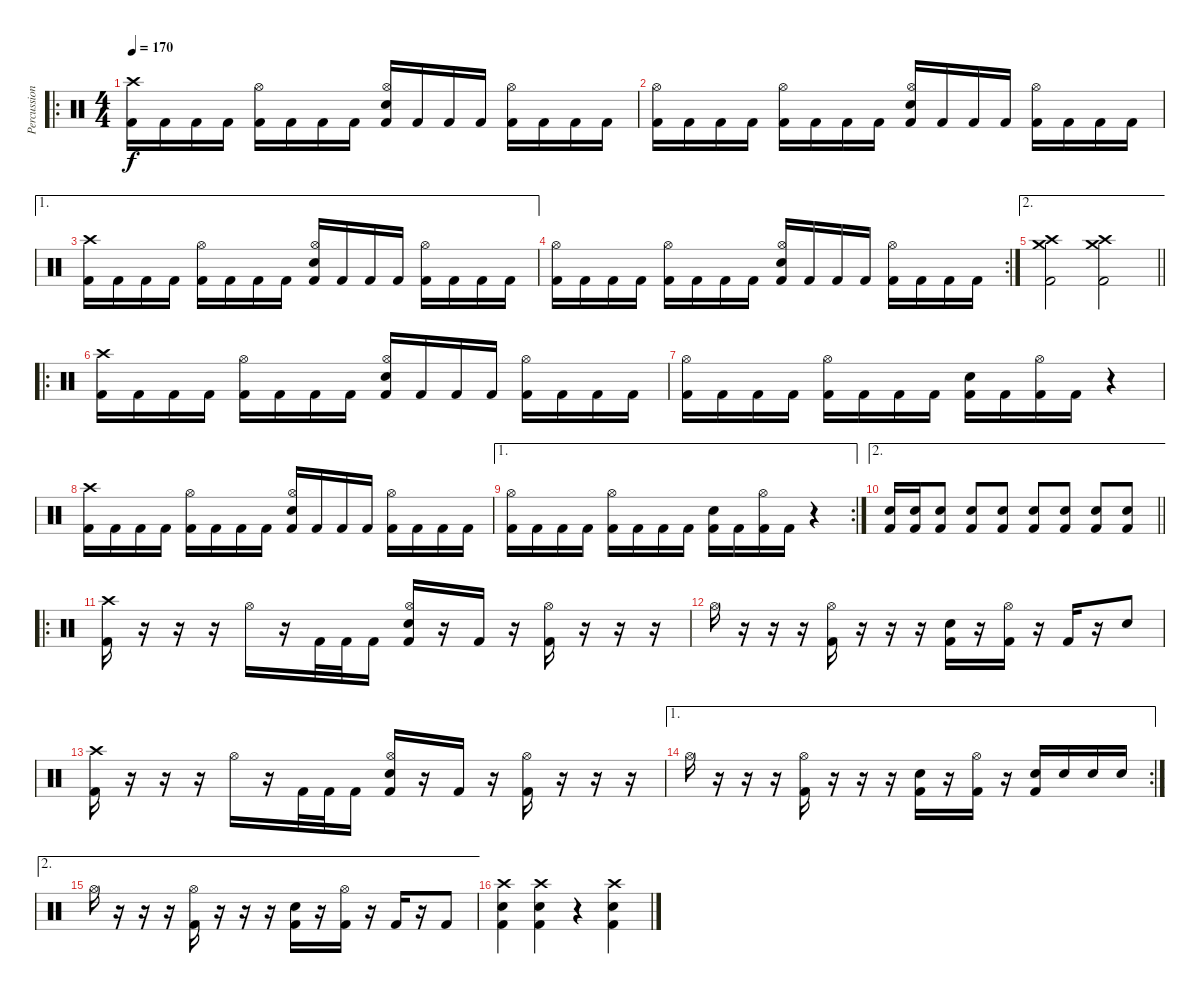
\track ("Percussion" "Percussion") {instrument percussion}
\staff {score}
\articulation defaults
\ro
\ts (4 4)
\section ("" "")
\tempo 170
\clef neutral
\ks c
("Crash high (hit)" "Kick (hit) 2").16{dy f} "Kick (hit) 2".16 "Kick (hit) 2".16 "Kick (hit) 2".16 ("Hi-Hat (open)" "Kick (hit) 2").16 "Kick (hit) 2".16 "Kick (hit) 2".16 "Kick (hit) 2".16 ("Hi-Hat (open)" "Electric Snare (hit)" "Kick (hit) 2").16 "Kick (hit) 2".16 "Kick (hit) 2".16 "Kick (hit) 2".16 ("Hi-Hat (open)" "Kick (hit) 2").16 "Kick (hit) 2".16 "Kick (hit) 2".16 "Kick (hit) 2".16 |
("Hi-Hat (open)" "Kick (hit) 2").16 "Kick (hit) 2".16 "Kick (hit) 2".16 "Kick (hit) 2".16 ("Hi-Hat (open)" "Kick (hit) 2").16 "Kick (hit) 2".16 "Kick (hit) 2".16 "Kick (hit) 2".16 ("Hi-Hat (open)" "Electric Snare (hit)" "Kick (hit) 2").16 "Kick (hit) 2".16 "Kick (hit) 2".16 "Kick (hit) 2".16 ("Hi-Hat (open)" "Kick (hit) 2").16 "Kick (hit) 2".16 "Kick (hit) 2".16 "Kick (hit) 2".16 |
\ae 1
("Crash high (hit)" "Kick (hit) 2").16 "Kick (hit) 2".16 "Kick (hit) 2".16 "Kick (hit) 2".16 ("Hi-Hat (open)" "Kick (hit) 2").16 "Kick (hit) 2".16 "Kick (hit) 2".16 "Kick (hit) 2".16 ("Hi-Hat (open)" "Electric Snare (hit)" "Kick (hit) 2").16 "Kick (hit) 2".16 "Kick (hit) 2".16 "Kick (hit) 2".16 ("Hi-Hat (open)" "Kick (hit) 2").16 "Kick (hit) 2".16 "Kick (hit) 2".16 "Kick (hit) 2".16 |
\rc 2
("Hi-Hat (open)" "Kick (hit) 2").16 "Kick (hit) 2".16 "Kick (hit) 2".16 "Kick (hit) 2".16 ("Hi-Hat (open)" "Kick (hit) 2").16 "Kick (hit) 2".16 "Kick (hit) 2".16 "Kick (hit) 2".16 ("Hi-Hat (open)" "Electric Snare (hit)" "Kick (hit) 2").16 "Kick (hit) 2".16 "Kick (hit) 2".16 "Kick (hit) 2".16 ("Hi-Hat (open)" "Kick (hit) 2").16 "Kick (hit) 2".16 "Kick (hit) 2".16 "Kick (hit) 2".16 |
\ae 2
\barLineRight lightlight
("Crash high (hit)" "Crash medium (hit)" "Kick (hit) 2").2 ("Crash high (hit)" "Crash medium (hit)" "Kick (hit) 2").2 |
\ro
\section ("" "")
("Crash high (hit)" "Kick (hit) 2").16 "Kick (hit) 2".16 "Kick (hit) 2".16 "Kick (hit) 2".16 ("Hi-Hat (open)" "Kick (hit) 2").16 "Kick (hit) 2".16 "Kick (hit) 2".16 "Kick (hit) 2".16 ("Hi-Hat (open)" "Electric Snare (hit)" "Kick (hit) 2").16 "Kick (hit) 2".16 "Kick (hit) 2".16 "Kick (hit) 2".16 ("Hi-Hat (open)" "Kick (hit) 2").16 "Kick (hit) 2".16 "Kick (hit) 2".16 "Kick (hit) 2".16 |
("Hi-Hat (open)" "Kick (hit) 2").16 "Kick (hit) 2".16 "Kick (hit) 2".16 "Kick (hit) 2".16 ("Hi-Hat (open)" "Kick (hit) 2").16 "Kick (hit) 2".16 "Kick (hit) 2".16 "Kick (hit) 2".16 ("Electric Snare (hit)" "Kick (hit) 2").16 "Kick (hit) 2".16 ("Hi-Hat (open)" "Kick (hit) 2").16 "Kick (hit) 2".16 r.4 |
("Crash high (hit)" "Kick (hit) 2").16 "Kick (hit) 2".16 "Kick (hit) 2".16 "Kick (hit) 2".16 ("Hi-Hat (open)" "Kick (hit) 2").16 "Kick (hit) 2".16 "Kick (hit) 2".16 "Kick (hit) 2".16 ("Hi-Hat (open)" "Electric Snare (hit)" "Kick (hit) 2").16 "Kick (hit) 2".16 "Kick (hit) 2".16 "Kick (hit) 2".16 ("Hi-Hat (open)" "Kick (hit) 2").16 "Kick (hit) 2".16 "Kick (hit) 2".16 "Kick (hit) 2".16 |
\ae 1
\rc 2
("Hi-Hat (open)" "Kick (hit) 2").16 "Kick (hit) 2".16 "Kick (hit) 2".16 "Kick (hit) 2".16 ("Hi-Hat (open)" "Kick (hit) 2").16 "Kick (hit) 2".16 "Kick (hit) 2".16 "Kick (hit) 2".16 ("Electric Snare (hit)" "Kick (hit) 2").16 "Kick (hit) 2".16 ("Hi-Hat (open)" "Kick (hit) 2").16 "Kick (hit) 2".16 r.4 |
\ae 2
\barLineRight lightlight
("Electric Snare (hit)" "Kick (hit) 2").16 ("Electric Snare (hit)" "Kick (hit) 2").16 ("Electric Snare (hit)" "Kick (hit) 2").8 ("Electric Snare (hit)" "Kick (hit) 2").8 ("Electric Snare (hit)" "Kick (hit) 2").8 ("Electric Snare (hit)" "Kick (hit) 2").8 ("Electric Snare (hit)" "Kick (hit) 2").8 ("Electric Snare (hit)" "Kick (hit) 2").8 ("Electric Snare (hit)" "Kick (hit) 2").8 |
\ro
\section ("" "")
("Crash high (hit)" "Kick (hit) 2").16 r.16 r.16 r.16 "Hi-Hat (open)".16 r.16 "Kick (hit) 2".32 "Kick (hit) 2".32 "Kick (hit) 2".16 ("Hi-Hat (open)" "Electric Snare (hit)" "Kick (hit) 2").16 r.16 "Kick (hit) 2".16 r.16 ("Hi-Hat (open)" "Kick (hit) 2").16 r.16 r.16 r.16 |
"Hi-Hat (open)".16 r.16 r.16 r.16 ("Hi-Hat (open)" "Kick (hit) 2").16 r.16 r.16 r.16 ("Electric Snare (hit)" "Kick (hit) 2").16 r.16 ("Hi-Hat (open)" "Kick (hit) 2").16 r.16 "Kick (hit) 2".16 r.16 "Electric Snare (hit)".8 |
("Crash high (hit)" "Kick (hit) 2").16 r.16 r.16 r.16 "Hi-Hat (open)".16 r.16 "Kick (hit) 2".32 "Kick (hit) 2".32 "Kick (hit) 2".16 ("Hi-Hat (open)" "Electric Snare (hit)" "Kick (hit) 2").16 r.16 "Kick (hit) 2".16 r.16 ("Hi-Hat (open)" "Kick (hit) 2").16 r.16 r.16 r.16 |
\ae 1
\rc 2 "Hi-Hat (open)".16
r.16 r.16 r.16 ("Hi-Hat (open)" "Kick (hit) 2").16 r.16 r.16 r.16 ("Electric Snare (hit)" "Kick (hit) 2").16 r.16 ("Hi-Hat (open)" "Kick (hit) 2").16 r.16 ("Electric Snare (hit)" "Kick (hit) 2").16 "Electric Snare (hit)".16 "Electric Snare (hit)".16 "Electric Snare (hit)".16 |
\ae 2 "Hi-Hat (open)".16
r.16 r.16 r.16 ("Hi-Hat (open)" "Kick (hit) 2").16 r.16 r.16 r.16 ("Electric Snare (hit)" "Kick (hit) 2").16 r.16 ("Hi-Hat (open)" "Kick (hit) 2").16 r.16 "Kick (hit) 2".16 r.16 "Kick (hit) 2".8 |
("Crash high (hit)" "Electric Snare (hit)" "Kick (hit) 2").4 ("Crash high (hit)" "Electric Snare (hit)" "Kick (hit) 2").4 r.4 ("Crash high (hit)" "Electric Snare (hit)" "Kick (hit) 2").4
